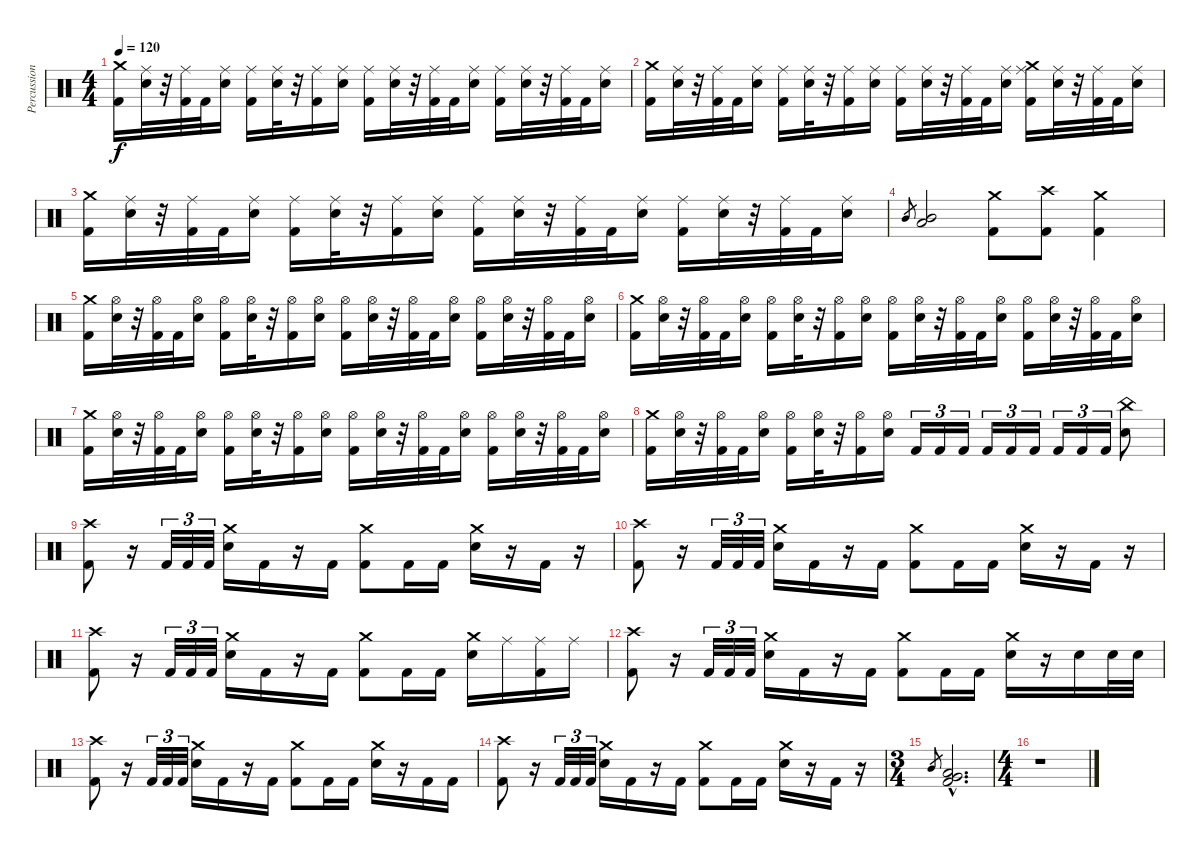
\track ("Percussion" "Percussion") {instrument percussion}
\staff {score}
\articulation defaults
\ts (4 4)
\tempo 120
\clef neutral
\ks c
("Kick (hit) 2" "Crash medium (hit)").16{dy f} ("Electric Snare (hit)" "Ride (middle)").32 r.32 ("Kick (hit) 2" "Ride (middle)").32 "Kick (hit) 2".32 ("Electric Snare (hit)" "Ride (middle)").16 ("Kick (hit) 2" "Ride (middle)").16 ("Electric Snare (hit)" "Ride (middle)").32 r.32 ("Kick (hit) 2" "Ride (middle)").16 ("Electric Snare (hit)" "Ride (middle)").16 ("Kick (hit) 2" "Ride (middle)").16 ("Electric Snare (hit)" "Ride (middle)").32 r.32 ("Kick (hit) 2" "Ride (middle)").32 "Kick (hit) 2".32 ("Electric Snare (hit)" "Ride (middle)").16 ("Kick (hit) 2" "Ride (middle)").16 ("Electric Snare (hit)" "Ride (middle)").32 r.32 ("Kick (hit) 2" "Ride (middle)").32 "Kick (hit) 2".32 ("Electric Snare (hit)" "Ride (middle)").16 |
("Kick (hit) 2" "Crash medium (hit)").16 ("Electric Snare (hit)" "Ride (middle)").32 r.32 ("Kick (hit) 2" "Ride (middle)").32 "Kick (hit) 2".32 ("Electric Snare (hit)" "Ride (middle)").16 ("Kick (hit) 2" "Ride (middle)").16 ("Electric Snare (hit)" "Ride (middle)").32 r.32 ("Kick (hit) 2" "Ride (middle)").16 ("Electric Snare (hit)" "Ride (middle)").16 ("Kick (hit) 2" "Ride (middle)").16 ("Electric Snare (hit)" "Ride (middle)").32 r.32 ("Kick (hit) 2" "Ride (middle)").32 "Kick (hit) 2".32 ("Electric Snare (hit)" "Ride (middle)").16 ("Kick (hit) 2" "Ride (middle)" "Crash medium (hit)").16 ("Electric Snare (hit)" "Ride (middle)").32 r.32 ("Kick (hit) 2" "Ride (middle)").32 "Kick (hit) 2".32 ("Electric Snare (hit)" "Ride (middle)").16 |
("Kick (hit) 2" "Crash medium (hit)").16 ("Electric Snare (hit)" "Ride (middle)").32 r.32 ("Kick (hit) 2" "Ride (middle)").32 "Kick (hit) 2".32 ("Electric Snare (hit)" "Ride (middle)").16 ("Kick (hit) 2" "Ride (middle)").16 ("Electric Snare (hit)" "Ride (middle)").32 r.32 ("Kick (hit) 2" "Ride (middle)").16 ("Electric Snare (hit)" "Ride (middle)").16 ("Kick (hit) 2" "Ride (middle)").16 ("Electric Snare (hit)" "Ride (middle)").32 r.32 ("Kick (hit) 2" "Ride (middle)").32 "Kick (hit) 2".32 ("Electric Snare (hit)" "Ride (middle)").16 ("Kick (hit) 2" "Ride (middle)").16 ("Electric Snare (hit)" "Ride (middle)").32 r.32 ("Kick (hit) 2" "Ride (middle)").32 "Kick (hit) 2".32 ("Electric Snare (hit)" "Ride (middle)").16 |
"Mid Tom (hit)".8{gr} ("Low Tom (hit)" "Mid Tom (hit)").2 ("Kick (hit) 2" "Crash medium (hit)").8 ("Kick (hit) 2" "Crash high (hit)").8 ("Kick (hit) 2" "Crash medium (hit)").4 |
("Kick (hit) 2" "Crash medium (hit)").16 ("Electric Snare (hit)" "Hi-Hat (open)").32 r.32 ("Kick (hit) 2" "Hi-Hat (open)").32 "Kick (hit) 2".32 ("Electric Snare (hit)" "Hi-Hat (open)").16 ("Kick (hit) 2" "Hi-Hat (open)").16 ("Electric Snare (hit)" "Hi-Hat (open)").32 r.32 ("Kick (hit) 2" "Hi-Hat (open)").16 ("Electric Snare (hit)" "Hi-Hat (open)").16 ("Kick (hit) 2" "Hi-Hat (open)").16 ("Electric Snare (hit)" "Hi-Hat (open)").32 r.32 ("Kick (hit) 2" "Hi-Hat (open)").32 "Kick (hit) 2".32 ("Electric Snare (hit)" "Hi-Hat (open)").16 ("Kick (hit) 2" "Hi-Hat (open)").16 ("Electric Snare (hit)" "Hi-Hat (open)").32 r.32 ("Kick (hit) 2" "Hi-Hat (open)").32 "Kick (hit) 2".32 ("Electric Snare (hit)" "Hi-Hat (open)").16 |
("Kick (hit) 2" "Crash medium (hit)").16 ("Electric Snare (hit)" "Hi-Hat (open)").32 r.32 ("Kick (hit) 2" "Hi-Hat (open)").32 "Kick (hit) 2".32 ("Electric Snare (hit)" "Hi-Hat (open)").16 ("Kick (hit) 2" "Hi-Hat (open)").16 ("Electric Snare (hit)" "Hi-Hat (open)").32 r.32 ("Kick (hit) 2" "Hi-Hat (open)").16 ("Electric Snare (hit)" "Hi-Hat (open)").16 ("Kick (hit) 2" "Hi-Hat (open)").16 ("Electric Snare (hit)" "Hi-Hat (open)").32 r.32 ("Kick (hit) 2" "Hi-Hat (open)").32 "Kick (hit) 2".32 ("Electric Snare (hit)" "Hi-Hat (open)").16 ("Kick (hit) 2" "Hi-Hat (open)").16 ("Electric Snare (hit)" "Hi-Hat (open)").32 r.32 ("Kick (hit) 2" "Hi-Hat (open)").32 "Kick (hit) 2".32 ("Electric Snare (hit)" "Hi-Hat (open)").16 |
("Kick (hit) 2" "Crash medium (hit)").16 ("Electric Snare (hit)" "Hi-Hat (open)").32 r.32 ("Kick (hit) 2" "Hi-Hat (open)").32 "Kick (hit) 2".32 ("Electric Snare (hit)" "Hi-Hat (open)").16 ("Kick (hit) 2" "Hi-Hat (open)").16 ("Electric Snare (hit)" "Hi-Hat (open)").32 r.32 ("Kick (hit) 2" "Hi-Hat (open)").16 ("Electric Snare (hit)" "Hi-Hat (open)").16 ("Kick (hit) 2" "Hi-Hat (open)").16 ("Electric Snare (hit)" "Hi-Hat (open)").32 r.32 ("Kick (hit) 2" "Hi-Hat (open)").32 "Kick (hit) 2".32 ("Electric Snare (hit)" "Hi-Hat (open)").16 ("Kick (hit) 2" "Hi-Hat (open)").16 ("Electric Snare (hit)" "Hi-Hat (open)").32 r.32 ("Kick (hit) 2" "Hi-Hat (open)").32 "Kick (hit) 2".32 ("Electric Snare (hit)" "Hi-Hat (open)").16 |
("Kick (hit) 2" "Crash medium (hit)").16 ("Electric Snare (hit)" "Hi-Hat (open)").32 r.32 ("Kick (hit) 2" "Hi-Hat (open)").32 "Kick (hit) 2".32 ("Electric Snare (hit)" "Hi-Hat (open)").16 ("Kick (hit) 2" "Hi-Hat (open)").16 ("Electric Snare (hit)" "Hi-Hat (open)").32 r.32 ("Kick (hit) 2" "Hi-Hat (open)").16 ("Electric Snare (hit)" "Hi-Hat (open)").16 "Kick (hit) 2".16{tu (3 2)} "Kick (hit) 2".16{tu (3 2)} "Kick (hit) 2".16{tu (3 2)} "Kick (hit) 2".16{tu (3 2)} "Kick (hit) 2".16{tu (3 2)} "Kick (hit) 2".16{tu (3 2)} "Kick (hit) 2".16{tu (3 2)} "Kick (hit) 2".16{tu (3 2)} "Kick (hit) 2".16{tu (3 2)} ("Electric Snare (hit)" "China (hit)").8 |
("Kick (hit) 2" "Crash high (hit)").8 r.16 "Kick (hit) 2".32{tu (3 2)} "Kick (hit) 2".32{tu (3 2)} "Kick (hit) 2".32{tu (3 2)} ("Electric Snare (hit)" "Crash medium (hit)").16 "Kick (hit) 2".16 r.16 "Kick (hit) 2".16 ("Kick (hit) 2" "Crash medium (hit)").8 "Kick (hit) 2".16 "Kick (hit) 2".16 ("Electric Snare (hit)" "Crash medium (hit)").16 r.16 "Kick (hit) 2".16 r.16 |
("Kick (hit) 2" "Crash high (hit)").8 r.16 "Kick (hit) 2".32{tu (3 2)} "Kick (hit) 2".32{tu (3 2)} "Kick (hit) 2".32{tu (3 2)} ("Electric Snare (hit)" "Crash medium (hit)").16 "Kick (hit) 2".16 r.16 "Kick (hit) 2".16 ("Kick (hit) 2" "Crash medium (hit)").8 "Kick (hit) 2".16 "Kick (hit) 2".16 ("Electric Snare (hit)" "Crash medium (hit)").16 r.16 "Kick (hit) 2".16 r.16 |
("Kick (hit) 2" "Crash high (hit)").8 r.16 "Kick (hit) 2".32{tu (3 2)} "Kick (hit) 2".32{tu (3 2)} "Kick (hit) 2".32{tu (3 2)} ("Electric Snare (hit)" "Crash medium (hit)").16 "Kick (hit) 2".16 r.16 "Kick (hit) 2".16 ("Kick (hit) 2" "Crash medium (hit)").8 "Kick (hit) 2".16 "Kick (hit) 2".16 ("Electric Snare (hit)" "Crash medium (hit)").16 "Ride (middle)".16 ("Kick (hit) 2" "Ride (middle)").16 "Ride (middle)".16 |
("Kick (hit) 2" "Crash high (hit)").8 r.16 "Kick (hit) 2".32{tu (3 2)} "Kick (hit) 2".32{tu (3 2)} "Kick (hit) 2".32{tu (3 2)} ("Electric Snare (hit)" "Crash medium (hit)").16 "Kick (hit) 2".16 r.16 "Kick (hit) 2".16 ("Kick (hit) 2" "Crash medium (hit)").8 "Kick (hit) 2".16 "Kick (hit) 2".16 ("Electric Snare (hit)" "Crash medium (hit)").16 r.16 "Electric Snare (hit)".16 "Electric Snare (hit)".32 "Electric Snare (hit)".32 |
("Kick (hit) 2" "Crash high (hit)").8 r.16 "Kick (hit) 2".32{tu (3 2)} "Kick (hit) 2".32{tu (3 2)} "Kick (hit) 2".32{tu (3 2)} ("Electric Snare (hit)" "Crash medium (hit)").16 "Kick (hit) 2".16 r.16 "Kick (hit) 2".16 ("Kick (hit) 2" "Crash medium (hit)").8 "Kick (hit) 2".16 "Kick (hit) 2".16 ("Electric Snare (hit)" "Crash medium (hit)").16 r.16 "Kick (hit) 2".16 "Kick (hit) 2".16 |
("Kick (hit) 2" "Crash high (hit)").8 r.16 "Kick (hit) 2".32{tu (3 2)} "Kick (hit) 2".32{tu (3 2)} "Kick (hit) 2".32{tu (3 2)} ("Electric Snare (hit)" "Crash medium (hit)").16 "Kick (hit) 2".16 r.16 "Kick (hit) 2".16 ("Kick (hit) 2" "Crash medium (hit)").8 "Kick (hit) 2".16 "Kick (hit) 2".16 ("Electric Snare (hit)" "Crash medium (hit)").16 r.16 "Kick (hit) 2".16 r.16 |
\ts (3 4)
"Mid Tom (hit)".8{gr} ("Kick (hit) 2"{hac} "Very Low Tom (hit)"{hac} "Low Tom (hit)"{hac}).2{d} |
\ts (4 4)
r.1
